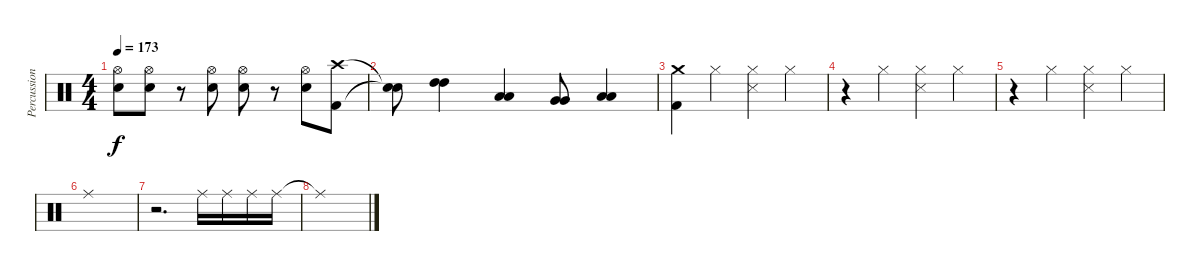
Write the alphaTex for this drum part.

\track ("Percussion" "Percussion") {instrument percussion}
\staff {score}
\articulation defaults
\ts (4 4)
\tempo 173
\clef neutral
\ks c
("Hi-Hat (open)" "Electric Snare (hit)").8{dy f} ("Hi-Hat (open)" "Electric Snare (hit)").8 r.8 ("Hi-Hat (open)" "Electric Snare (hit)").8 ("Hi-Hat (open)" "Electric Snare (hit)").8 r.8 ("Hi-Hat (open)" "Electric Snare (hit)").8 ("Crash high (hit)" "Kick (hit) 2").8 |
("Snare (hit)"{t} "Snare (hit)"{t}).8 ("High Tom (hit)" "High Tom (hit)").4 ("Low Tom (hit)" "Low Tom (hit)").4 ("Very Low Tom (hit)" "Very Low Tom (hit)").8 ("Low Floor Tom (hit)" "Low Floor Tom (hit)").4 |
("Crash medium (hit)" "Kick (hit) 2").4 "Hi-Hat (closed)".4 ("Hi-Hat (closed)" "Snare (side stick) 3").4 "Hi-Hat (closed)".4 |
r.4 "Hi-Hat (closed)".4 ("Hi-Hat (closed)" "Snare (side stick) 3").4 "Hi-Hat (closed)".4 |
r.4 "Hi-Hat (closed)".4 ("Hi-Hat (closed)" "Snare (side stick) 3").4 "Hi-Hat (closed)".4 |
"Ride (middle)".1 |
r.2{d} "Ride (middle)".16 "Ride (middle)".16 "Ride (middle)".16 "Ride (middle)".16 |
"Ride (middle)"{t}.1
